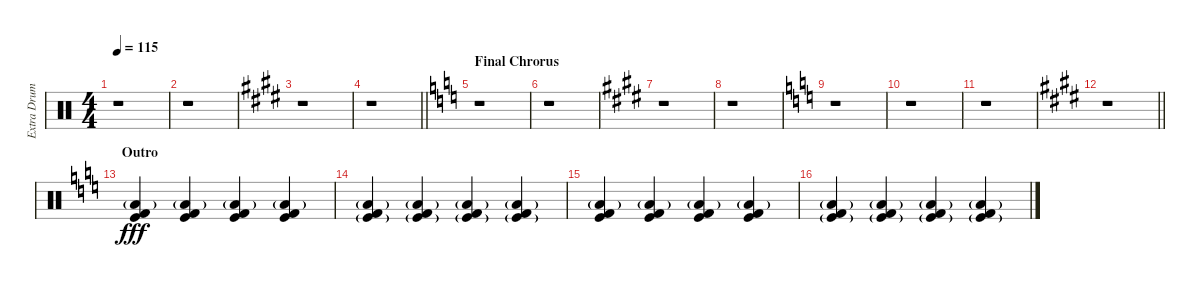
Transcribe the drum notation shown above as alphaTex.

\track ("Extra Drum" "Extra Drum") {instrument percussion}
\staff {score}
\articulation defaults
\ts (4 4)
\tempo 115
\clef neutral
\ks c
r.1{dy fff} |
r.1 |
\ks e
r.1 |
\barLineRight lightlight
r.1 |
\section ("" "Final Chrorus")
\ks c
r.1 |
r.1 |
\ks e
r.1 |
r.1 |
\ks c
r.1 |
r.1 |
r.1 |
\barLineRight lightlight
\ks e
r.1 |
\section ("" "Outro")
\ks c
("Low Floor Tom (hit)"{g} "Kick (hit)" "Kick (hit) 2").4 ("Low Floor Tom (hit)"{g} "Kick (hit)" "Kick (hit) 2").4 ("Low Floor Tom (hit)"{g} "Kick (hit)" "Kick (hit) 2").4 ("Low Floor Tom (hit)"{g} "Kick (hit)" "Kick (hit) 2").4 |
("Low Floor Tom (hit)"{g} "Kick (hit)"{g} "Kick (hit) 2").4 ("Low Floor Tom (hit)"{g} "Kick (hit)"{g} "Kick (hit) 2").4 ("Low Floor Tom (hit)"{g} "Kick (hit)"{g} "Kick (hit) 2").4 ("Low Floor Tom (hit)"{g} "Kick (hit)"{g} "Kick (hit) 2").4 |
("Low Floor Tom (hit)"{g} "Kick (hit)" "Kick (hit) 2").4 ("Low Floor Tom (hit)"{g} "Kick (hit)" "Kick (hit) 2").4 ("Low Floor Tom (hit)"{g} "Kick (hit)" "Kick (hit) 2").4 ("Low Floor Tom (hit)"{g} "Kick (hit)" "Kick (hit) 2").4 |
("Low Floor Tom (hit)"{g} "Kick (hit)"{g} "Kick (hit) 2").4 ("Low Floor Tom (hit)"{g} "Kick (hit)"{g} "Kick (hit) 2").4 ("Low Floor Tom (hit)"{g} "Kick (hit)"{g} "Kick (hit) 2").4 ("Low Floor Tom (hit)"{g} "Kick (hit)"{g} "Kick (hit) 2").4
